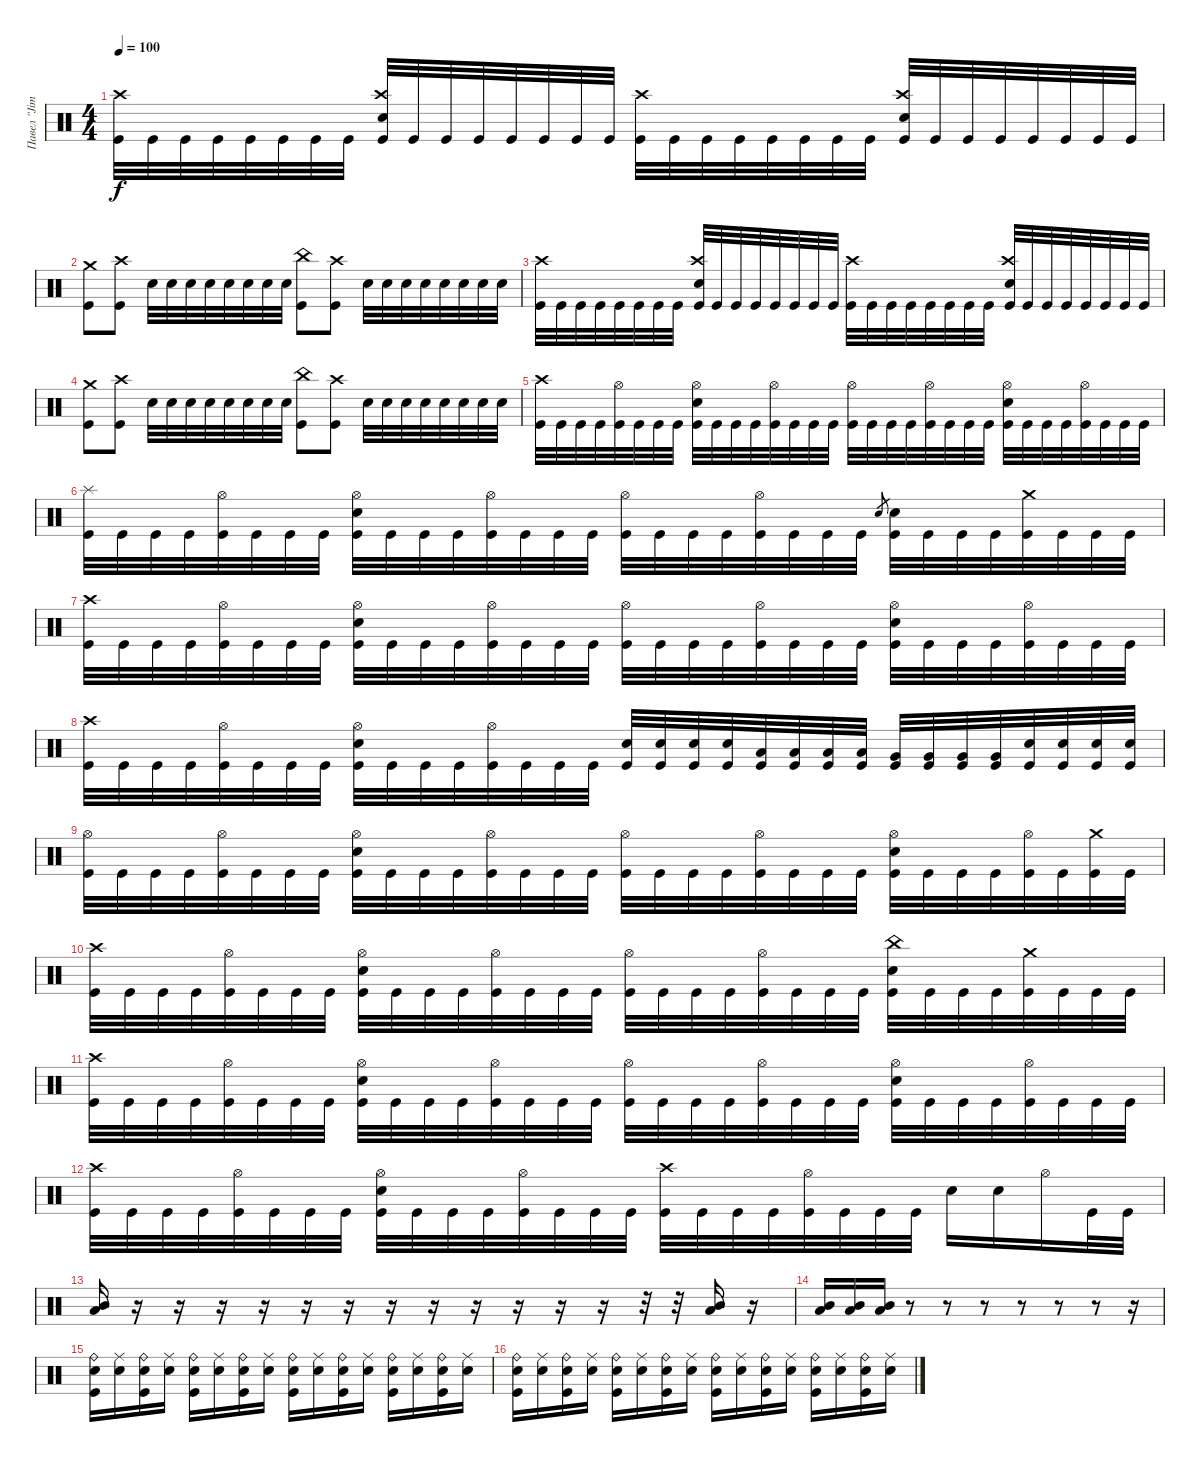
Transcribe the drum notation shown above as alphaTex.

\track ("Павел \"Jim\" Лохнин" "Павел \"Jim") {instrument percussion}
\staff {score}
\articulation defaults
\ts (4 4)
\tempo 100
\clef neutral
\ks c
("Kick (hit)" "Crash high (hit)").32{dy f} "Kick (hit)".32 "Kick (hit)".32 "Kick (hit)".32 "Kick (hit)".32 "Kick (hit)".32 "Kick (hit)".32 "Kick (hit)".32 ("Kick (hit)" "Electric Snare (hit)" "Crash high (hit)").32 "Kick (hit)".32 "Kick (hit)".32 "Kick (hit)".32 "Kick (hit)".32 "Kick (hit)".32 "Kick (hit)".32 "Kick (hit)".32 ("Kick (hit)" "Crash high (hit)").32 "Kick (hit)".32 "Kick (hit)".32 "Kick (hit)".32 "Kick (hit)".32 "Kick (hit)".32 "Kick (hit)".32 "Kick (hit)".32 ("Kick (hit)" "Electric Snare (hit)" "Crash high (hit)").32 "Kick (hit)".32 "Kick (hit)".32 "Kick (hit)".32 "Kick (hit)".32 "Kick (hit)".32 "Kick (hit)".32 "Kick (hit)".32 |
("Kick (hit)" "Crash medium (hit)").8 ("Kick (hit)" "Crash high (hit)").8 "Electric Snare (hit)".32 "Electric Snare (hit)".32 "Electric Snare (hit)".32 "Electric Snare (hit)".32 "Electric Snare (hit)".32 "Electric Snare (hit)".32 "Electric Snare (hit)".32 "Electric Snare (hit)".32 ("Kick (hit)" "China (hit)").8 ("Kick (hit)" "Crash high (hit)").8 "Electric Snare (hit)".32 "Electric Snare (hit)".32 "Electric Snare (hit)".32 "Electric Snare (hit)".32 "Electric Snare (hit)".32 "Electric Snare (hit)".32 "Electric Snare (hit)".32 "Electric Snare (hit)".32 |
("Kick (hit)" "Crash high (hit)").32 "Kick (hit)".32 "Kick (hit)".32 "Kick (hit)".32 "Kick (hit)".32 "Kick (hit)".32 "Kick (hit)".32 "Kick (hit)".32 ("Kick (hit)" "Electric Snare (hit)" "Crash high (hit)").32 "Kick (hit)".32 "Kick (hit)".32 "Kick (hit)".32 "Kick (hit)".32 "Kick (hit)".32 "Kick (hit)".32 "Kick (hit)".32 ("Kick (hit)" "Crash high (hit)").32 "Kick (hit)".32 "Kick (hit)".32 "Kick (hit)".32 "Kick (hit)".32 "Kick (hit)".32 "Kick (hit)".32 "Kick (hit)".32 ("Kick (hit)" "Electric Snare (hit)" "Crash high (hit)").32 "Kick (hit)".32 "Kick (hit)".32 "Kick (hit)".32 "Kick (hit)".32 "Kick (hit)".32 "Kick (hit)".32 "Kick (hit)".32 |
("Kick (hit)" "Crash medium (hit)").8 ("Kick (hit)" "Crash high (hit)").8 "Electric Snare (hit)".32 "Electric Snare (hit)".32 "Electric Snare (hit)".32 "Electric Snare (hit)".32 "Electric Snare (hit)".32 "Electric Snare (hit)".32 "Electric Snare (hit)".32 "Electric Snare (hit)".32 ("Kick (hit)" "China (hit)").8 ("Kick (hit)" "Crash high (hit)").8 "Electric Snare (hit)".32 "Electric Snare (hit)".32 "Electric Snare (hit)".32 "Electric Snare (hit)".32 "Electric Snare (hit)".32 "Electric Snare (hit)".32 "Electric Snare (hit)".32 "Electric Snare (hit)".32 |
("Kick (hit)" "Crash high (hit)").32 "Kick (hit)".32 "Kick (hit)".32 "Kick (hit)".32 ("Kick (hit)" "Hi-Hat (open)").32 "Kick (hit)".32 "Kick (hit)".32 "Kick (hit)".32 ("Kick (hit)" "Electric Snare (hit)" "Hi-Hat (open)").32 "Kick (hit)".32 "Kick (hit)".32 "Kick (hit)".32 ("Kick (hit)" "Hi-Hat (open)").32 "Kick (hit)".32 "Kick (hit)".32 "Kick (hit)".32 ("Kick (hit)" "Hi-Hat (open)").32 "Kick (hit)".32 "Kick (hit)".32 "Kick (hit)".32 ("Kick (hit)" "Hi-Hat (open)").32 "Kick (hit)".32 "Kick (hit)".32 "Kick (hit)".32 ("Kick (hit)" "Electric Snare (hit)" "Hi-Hat (open)").32 "Kick (hit)".32 "Kick (hit)".32 "Kick (hit)".32 ("Kick (hit)" "Hi-Hat (open)").32 "Kick (hit)".32 "Kick (hit)".32 "Kick (hit)".32 |
("Kick (hit)" "Splash (hit)").32 "Kick (hit)".32 "Kick (hit)".32 "Kick (hit)".32 ("Kick (hit)" "Hi-Hat (open)").32 "Kick (hit)".32 "Kick (hit)".32 "Kick (hit)".32 ("Kick (hit)" "Electric Snare (hit)" "Hi-Hat (open)").32 "Kick (hit)".32 "Kick (hit)".32 "Kick (hit)".32 ("Kick (hit)" "Hi-Hat (open)").32 "Kick (hit)".32 "Kick (hit)".32 "Kick (hit)".32 ("Kick (hit)" "Hi-Hat (open)").32 "Kick (hit)".32 "Kick (hit)".32 "Kick (hit)".32 ("Kick (hit)" "Hi-Hat (open)").32 "Kick (hit)".32 "Kick (hit)".32 "Kick (hit)".32 "Electric Snare (hit)".8{gr} ("Kick (hit)" "Electric Snare (hit)").32 "Kick (hit)".32 "Kick (hit)".32 "Kick (hit)".32 ("Kick (hit)" "Crash medium (hit)").32 "Kick (hit)".32 "Kick (hit)".32 "Kick (hit)".32 |
("Kick (hit)" "Crash high (hit)").32 "Kick (hit)".32 "Kick (hit)".32 "Kick (hit)".32 ("Kick (hit)" "Hi-Hat (open)").32 "Kick (hit)".32 "Kick (hit)".32 "Kick (hit)".32 ("Kick (hit)" "Electric Snare (hit)" "Hi-Hat (open)").32 "Kick (hit)".32 "Kick (hit)".32 "Kick (hit)".32 ("Kick (hit)" "Hi-Hat (open)").32 "Kick (hit)".32 "Kick (hit)".32 "Kick (hit)".32 ("Kick (hit)" "Hi-Hat (open)").32 "Kick (hit)".32 "Kick (hit)".32 "Kick (hit)".32 ("Kick (hit)" "Hi-Hat (open)").32 "Kick (hit)".32 "Kick (hit)".32 "Kick (hit)".32 ("Kick (hit)" "Electric Snare (hit)" "Hi-Hat (open)").32 "Kick (hit)".32 "Kick (hit)".32 "Kick (hit)".32 ("Kick (hit)" "Hi-Hat (open)").32 "Kick (hit)".32 "Kick (hit)".32 "Kick (hit)".32 |
("Kick (hit)" "Crash high (hit)").32 "Kick (hit)".32 "Kick (hit)".32 "Kick (hit)".32 ("Kick (hit)" "Hi-Hat (open)").32 "Kick (hit)".32 "Kick (hit)".32 "Kick (hit)".32 ("Kick (hit)" "Electric Snare (hit)" "Hi-Hat (open)").32 "Kick (hit)".32 "Kick (hit)".32 "Kick (hit)".32 ("Kick (hit)" "Hi-Hat (open)").32 "Kick (hit)".32 "Kick (hit)".32 "Kick (hit)".32 ("Kick (hit)" "Electric Snare (hit)").32 ("Kick (hit)" "Electric Snare (hit)").32 ("Kick (hit)" "Electric Snare (hit)").32 ("Kick (hit)" "Electric Snare (hit)").32 ("Kick (hit)" "Low Tom (hit)").32 ("Kick (hit)" "Low Tom (hit)").32 ("Kick (hit)" "Low Tom (hit)").32 ("Kick (hit)" "Low Tom (hit)").32 ("Kick (hit)" "Very Low Tom (hit)").32 ("Kick (hit)" "Very Low Tom (hit)").32 ("Kick (hit)" "Very Low Tom (hit)").32 ("Kick (hit)" "Very Low Tom (hit)").32 ("Kick (hit)" "Electric Snare (hit)").32 ("Kick (hit)" "Electric Snare (hit)").32 ("Kick (hit)" "Electric Snare (hit)").32 ("Kick (hit)" "Electric Snare (hit)").32 |
("Kick (hit)" "Hi-Hat (open)").32 "Kick (hit)".32 "Kick (hit)".32 "Kick (hit)".32 ("Kick (hit)" "Hi-Hat (open)").32 "Kick (hit)".32 "Kick (hit)".32 "Kick (hit)".32 ("Kick (hit)" "Electric Snare (hit)" "Hi-Hat (open)").32 "Kick (hit)".32 "Kick (hit)".32 "Kick (hit)".32 ("Kick (hit)" "Hi-Hat (open)").32 "Kick (hit)".32 "Kick (hit)".32 "Kick (hit)".32 ("Kick (hit)" "Hi-Hat (open)").32 "Kick (hit)".32 "Kick (hit)".32 "Kick (hit)".32 ("Kick (hit)" "Hi-Hat (open)").32 "Kick (hit)".32 "Kick (hit)".32 "Kick (hit)".32 ("Kick (hit)" "Electric Snare (hit)" "Hi-Hat (open)").32 "Kick (hit)".32 "Kick (hit)".32 "Kick (hit)".32 ("Kick (hit)" "Hi-Hat (open)").32 "Kick (hit)".32 ("Kick (hit)" "Crash medium (hit)").32 "Kick (hit)".32 |
("Kick (hit)" "Crash high (hit)").32 "Kick (hit)".32 "Kick (hit)".32 "Kick (hit)".32 ("Kick (hit)" "Hi-Hat (open)").32 "Kick (hit)".32 "Kick (hit)".32 "Kick (hit)".32 ("Kick (hit)" "Electric Snare (hit)" "Hi-Hat (open)").32 "Kick (hit)".32 "Kick (hit)".32 "Kick (hit)".32 ("Kick (hit)" "Hi-Hat (open)").32 "Kick (hit)".32 "Kick (hit)".32 "Kick (hit)".32 ("Kick (hit)" "Hi-Hat (open)").32 "Kick (hit)".32 "Kick (hit)".32 "Kick (hit)".32 ("Kick (hit)" "Hi-Hat (open)").32 "Kick (hit)".32 "Kick (hit)".32 "Kick (hit)".32 ("Kick (hit)" "Electric Snare (hit)" "China (hit)").32 "Kick (hit)".32 "Kick (hit)".32 "Kick (hit)".32 ("Kick (hit)" "Crash medium (hit)").32 "Kick (hit)".32 "Kick (hit)".32 "Kick (hit)".32 |
("Kick (hit)" "Crash high (hit)").32 "Kick (hit)".32 "Kick (hit)".32 "Kick (hit)".32 ("Kick (hit)" "Hi-Hat (open)").32 "Kick (hit)".32 "Kick (hit)".32 "Kick (hit)".32 ("Kick (hit)" "Electric Snare (hit)" "Hi-Hat (open)").32 "Kick (hit)".32 "Kick (hit)".32 "Kick (hit)".32 ("Kick (hit)" "Hi-Hat (open)").32 "Kick (hit)".32 "Kick (hit)".32 "Kick (hit)".32 ("Kick (hit)" "Hi-Hat (open)").32 "Kick (hit)".32 "Kick (hit)".32 "Kick (hit)".32 ("Kick (hit)" "Hi-Hat (open)").32 "Kick (hit)".32 "Kick (hit)".32 "Kick (hit)".32 ("Kick (hit)" "Electric Snare (hit)" "Hi-Hat (open)").32 "Kick (hit)".32 "Kick (hit)".32 "Kick (hit)".32 ("Kick (hit)" "Hi-Hat (open)").32 "Kick (hit)".32 "Kick (hit)".32 "Kick (hit)".32 |
("Kick (hit)" "Crash high (hit)").32 "Kick (hit)".32 "Kick (hit)".32 "Kick (hit)".32 ("Kick (hit)" "Hi-Hat (open)").32 "Kick (hit)".32 "Kick (hit)".32 "Kick (hit)".32 ("Kick (hit)" "Electric Snare (hit)" "Hi-Hat (open)").32 "Kick (hit)".32 "Kick (hit)".32 "Kick (hit)".32 ("Kick (hit)" "Hi-Hat (open)").32 "Kick (hit)".32 "Kick (hit)".32 "Kick (hit)".32 ("Kick (hit)" "Crash high (hit)").32 "Kick (hit)".32 "Kick (hit)".32 "Kick (hit)".32 ("Kick (hit)" "Hi-Hat (open)").32 "Kick (hit)".32 "Kick (hit)".32 "Kick (hit)".32 "Electric Snare (hit)".16 "Electric Snare (hit)".16 "Hi-Hat (open)".16 "Kick (hit)".32 "Kick (hit)".32 |
("Low Tom (hit)" "Mid Tom (hit)").16 r.16 r.16 r.16 r.16 r.16 r.16 r.16 r.16 r.16 r.16 r.16 r.16 r.32 r.32 ("Low Tom (hit)" "Mid Tom (hit)").16 r.16 |
("Low Tom (hit)" "Mid Tom (hit)").16 ("Low Tom (hit)" "Mid Tom (hit)").16 ("Low Tom (hit)" "Mid Tom (hit)").16 r.8 r.8 r.8 r.8 r.8 r.8 r.16 |
("Kick (hit)" "Electric Snare (hit)" "Ride (bell)").16 ("Electric Snare (hit)" "Ride (middle)").16 ("Kick (hit)" "Electric Snare (hit)" "Ride (bell)").16 ("Electric Snare (hit)" "Ride (middle)").16 ("Kick (hit)" "Electric Snare (hit)" "Ride (bell)").16 ("Electric Snare (hit)" "Ride (middle)").16 ("Kick (hit)" "Electric Snare (hit)" "Ride (bell)").16 ("Electric Snare (hit)" "Ride (middle)").16 ("Kick (hit)" "Electric Snare (hit)" "Ride (bell)").16 ("Electric Snare (hit)" "Ride (middle)").16 ("Kick (hit)" "Electric Snare (hit)" "Ride (bell)").16 ("Electric Snare (hit)" "Ride (middle)").16 ("Kick (hit)" "Electric Snare (hit)" "Ride (bell)").16 ("Electric Snare (hit)" "Ride (middle)").16 ("Kick (hit)" "Electric Snare (hit)" "Ride (bell)").16 ("Electric Snare (hit)" "Ride (middle)").16 |
("Kick (hit)" "Electric Snare (hit)" "Ride (bell)").16 ("Electric Snare (hit)" "Ride (middle)").16 ("Kick (hit)" "Electric Snare (hit)" "Ride (bell)").16 ("Electric Snare (hit)" "Ride (middle)").16 ("Kick (hit)" "Electric Snare (hit)" "Ride (bell)").16 ("Electric Snare (hit)" "Ride (middle)").16 ("Kick (hit)" "Electric Snare (hit)" "Ride (bell)").16 ("Electric Snare (hit)" "Ride (middle)").16 ("Kick (hit)" "Electric Snare (hit)" "Ride (bell)").16 ("Electric Snare (hit)" "Ride (middle)").16 ("Kick (hit)" "Electric Snare (hit)" "Ride (bell)").16 ("Electric Snare (hit)" "Ride (middle)").16 ("Kick (hit)" "Electric Snare (hit)" "Ride (bell)").16 ("Electric Snare (hit)" "Ride (middle)").16 ("Kick (hit)" "Electric Snare (hit)" "Ride (bell)").16 ("Electric Snare (hit)" "Ride (middle)").16
